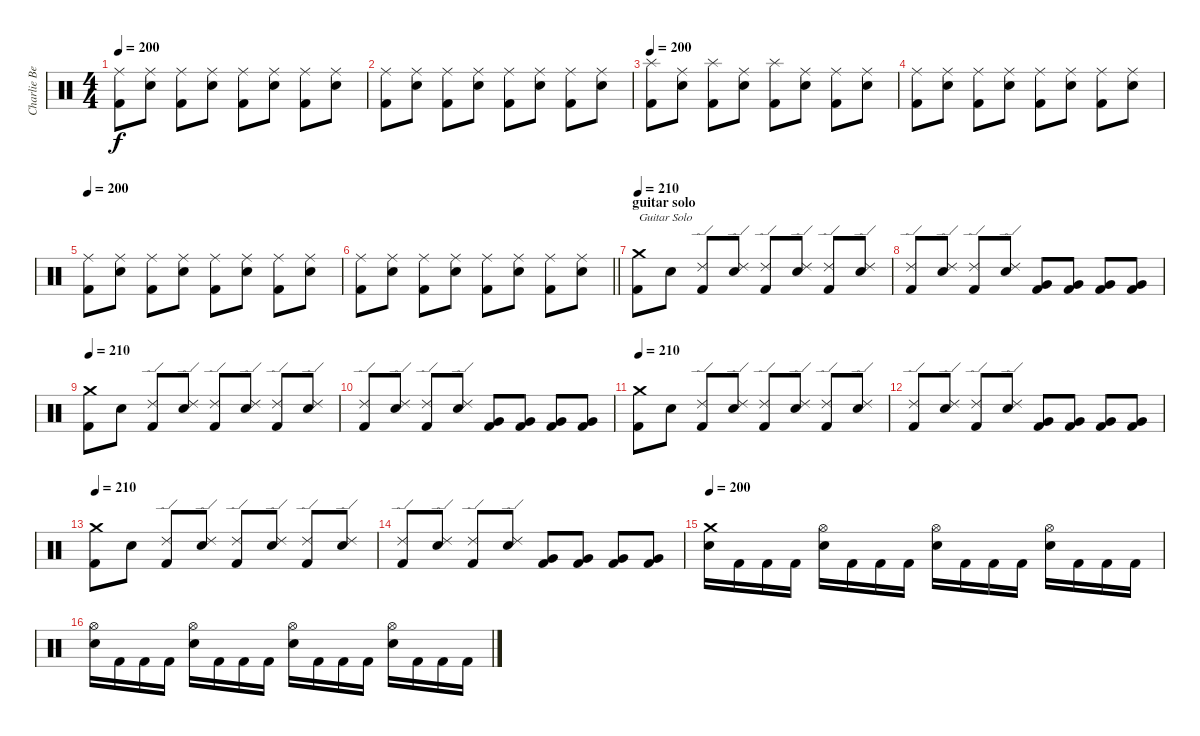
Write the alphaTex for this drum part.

\track ("Charlie Benante" "Charlie Be") {instrument percussion}
\staff {score}
\articulation defaults
\ts (4 4)
\tempo 200
\clef neutral
\ks c
("Ride (middle)" "Kick (hit) 2").8{dy f} ("Ride (middle)" "Electric Snare (hit)").8 ("Ride (middle)" "Kick (hit) 2").8 ("Ride (middle)" "Electric Snare (hit)").8 ("Ride (middle)" "Kick (hit) 2").8 ("Ride (middle)" "Electric Snare (hit)").8 ("Ride (middle)" "Kick (hit) 2").8 ("Ride (middle)" "Electric Snare (hit)").8 |
("Ride (middle)" "Kick (hit) 2").8 ("Ride (middle)" "Electric Snare (hit)").8 ("Ride (middle)" "Kick (hit) 2").8 ("Ride (middle)" "Electric Snare (hit)").8 ("Ride (middle)" "Kick (hit) 2").8 ("Ride (middle)" "Electric Snare (hit)").8 ("Ride (middle)" "Kick (hit) 2").8 ("Ride (middle)" "Electric Snare (hit)").8 |
\tempo 200
("Splash (hit)" "Kick (hit) 2").8 ("Ride (middle)" "Electric Snare (hit)").8 ("Splash (hit)" "Kick (hit) 2").8 ("Ride (middle)" "Electric Snare (hit)").8 ("Splash (hit)" "Kick (hit) 2").8 ("Ride (middle)" "Electric Snare (hit)").8 ("Ride (middle)" "Kick (hit) 2").8 ("Ride (middle)" "Electric Snare (hit)").8 |
("Ride (middle)" "Kick (hit) 2").8 ("Ride (middle)" "Electric Snare (hit)").8 ("Ride (middle)" "Kick (hit) 2").8 ("Ride (middle)" "Electric Snare (hit)").8 ("Ride (middle)" "Kick (hit) 2").8 ("Ride (middle)" "Electric Snare (hit)").8 ("Ride (middle)" "Kick (hit) 2").8 ("Ride (middle)" "Electric Snare (hit)").8 |
\tempo 200
("Ride (middle)" "Kick (hit) 2").8 ("Ride (middle)" "Electric Snare (hit)").8 ("Ride (middle)" "Kick (hit) 2").8 ("Ride (middle)" "Electric Snare (hit)").8 ("Ride (middle)" "Kick (hit) 2").8 ("Ride (middle)" "Electric Snare (hit)").8 ("Ride (middle)" "Kick (hit) 2").8 ("Ride (middle)" "Electric Snare (hit)").8 |
\barLineRight lightlight
("Ride (middle)" "Kick (hit) 2").8 ("Ride (middle)" "Electric Snare (hit)").8 ("Ride (middle)" "Kick (hit) 2").8 ("Ride (middle)" "Electric Snare (hit)").8 ("Ride (middle)" "Kick (hit) 2").8 ("Ride (middle)" "Electric Snare (hit)").8 ("Ride (middle)" "Kick (hit) 2").8 ("Ride (middle)" "Electric Snare (hit)").8 |
\section ("" "guitar solo")
\tempo 200
\tempo 210
("Crash medium (hit)" "Kick (hit) 2").8{txt "Guitar Solo"} "Electric Snare (hit)".8 ("Ride (edge) 2" "Kick (hit) 2").8 ("Ride (edge) 2" "Electric Snare (hit)").8 ("Ride (edge) 2" "Kick (hit) 2").8 ("Ride (edge) 2" "Electric Snare (hit)").8 ("Ride (edge) 2" "Kick (hit) 2").8 ("Ride (edge) 2" "Electric Snare (hit)").8 |
("Ride (edge) 2" "Kick (hit) 2").8 ("Ride (edge) 2" "Electric Snare (hit)").8 ("Ride (edge) 2" "Kick (hit) 2").8 ("Ride (edge) 2" "Electric Snare (hit)").8 ("Very Low Tom (hit)" "Kick (hit) 2").8 ("Very Low Tom (hit)" "Kick (hit) 2").8 ("Very Low Tom (hit)" "Kick (hit) 2").8 ("Very Low Tom (hit)" "Kick (hit) 2").8 |
\tempo 200
\tempo 210
("Crash medium (hit)" "Kick (hit) 2").8 "Electric Snare (hit)".8 ("Ride (edge) 2" "Kick (hit) 2").8 ("Ride (edge) 2" "Electric Snare (hit)").8 ("Ride (edge) 2" "Kick (hit) 2").8 ("Ride (edge) 2" "Electric Snare (hit)").8 ("Ride (edge) 2" "Kick (hit) 2").8 ("Ride (edge) 2" "Electric Snare (hit)").8 |
("Ride (edge) 2" "Kick (hit) 2").8 ("Ride (edge) 2" "Electric Snare (hit)").8 ("Ride (edge) 2" "Kick (hit) 2").8 ("Ride (edge) 2" "Electric Snare (hit)").8 ("Very Low Tom (hit)" "Kick (hit) 2").8 ("Very Low Tom (hit)" "Kick (hit) 2").8 ("Very Low Tom (hit)" "Kick (hit) 2").8 ("Very Low Tom (hit)" "Kick (hit) 2").8 |
\tempo 200
\tempo 210
("Crash medium (hit)" "Kick (hit) 2").8 "Electric Snare (hit)".8 ("Ride (edge) 2" "Kick (hit) 2").8 ("Ride (edge) 2" "Electric Snare (hit)").8 ("Ride (edge) 2" "Kick (hit) 2").8 ("Ride (edge) 2" "Electric Snare (hit)").8 ("Ride (edge) 2" "Kick (hit) 2").8 ("Ride (edge) 2" "Electric Snare (hit)").8 |
("Ride (edge) 2" "Kick (hit) 2").8 ("Ride (edge) 2" "Electric Snare (hit)").8 ("Ride (edge) 2" "Kick (hit) 2").8 ("Ride (edge) 2" "Electric Snare (hit)").8 ("Very Low Tom (hit)" "Kick (hit) 2").8 ("Very Low Tom (hit)" "Kick (hit) 2").8 ("Very Low Tom (hit)" "Kick (hit) 2").8 ("Very Low Tom (hit)" "Kick (hit) 2").8 |
\tempo 200
\tempo 210
("Crash medium (hit)" "Kick (hit) 2").8 "Electric Snare (hit)".8 ("Ride (edge) 2" "Kick (hit) 2").8 ("Ride (edge) 2" "Electric Snare (hit)").8 ("Ride (edge) 2" "Kick (hit) 2").8 ("Ride (edge) 2" "Electric Snare (hit)").8 ("Ride (edge) 2" "Kick (hit) 2").8 ("Ride (edge) 2" "Electric Snare (hit)").8 |
("Ride (edge) 2" "Kick (hit) 2").8 ("Ride (edge) 2" "Electric Snare (hit)").8 ("Ride (edge) 2" "Kick (hit) 2").8 ("Ride (edge) 2" "Electric Snare (hit)").8 ("Very Low Tom (hit)" "Kick (hit) 2").8 ("Very Low Tom (hit)" "Kick (hit) 2").8 ("Very Low Tom (hit)" "Kick (hit) 2").8 ("Very Low Tom (hit)" "Kick (hit) 2").8 |
\tempo 200
("Crash medium (hit)" "Electric Snare (hit)").16 "Kick (hit) 2".16 "Kick (hit) 2".16 "Kick (hit) 2".16 ("Hi-Hat (open)" "Electric Snare (hit)").16 "Kick (hit) 2".16 "Kick (hit) 2".16 "Kick (hit) 2".16 ("Hi-Hat (open)" "Electric Snare (hit)").16 "Kick (hit) 2".16 "Kick (hit) 2".16 "Kick (hit) 2".16 ("Hi-Hat (open)" "Electric Snare (hit)").16 "Kick (hit) 2".16 "Kick (hit) 2".16 "Kick (hit) 2".16 |
("Hi-Hat (open)" "Electric Snare (hit)").16 "Kick (hit) 2".16 "Kick (hit) 2".16 "Kick (hit) 2".16 ("Hi-Hat (open)" "Electric Snare (hit)").16 "Kick (hit) 2".16 "Kick (hit) 2".16 "Kick (hit) 2".16 ("Hi-Hat (open)" "Electric Snare (hit)").16 "Kick (hit) 2".16 "Kick (hit) 2".16 "Kick (hit) 2".16 ("Hi-Hat (open)" "Electric Snare (hit)").16 "Kick (hit) 2".16 "Kick (hit) 2".16 "Kick (hit) 2".16
